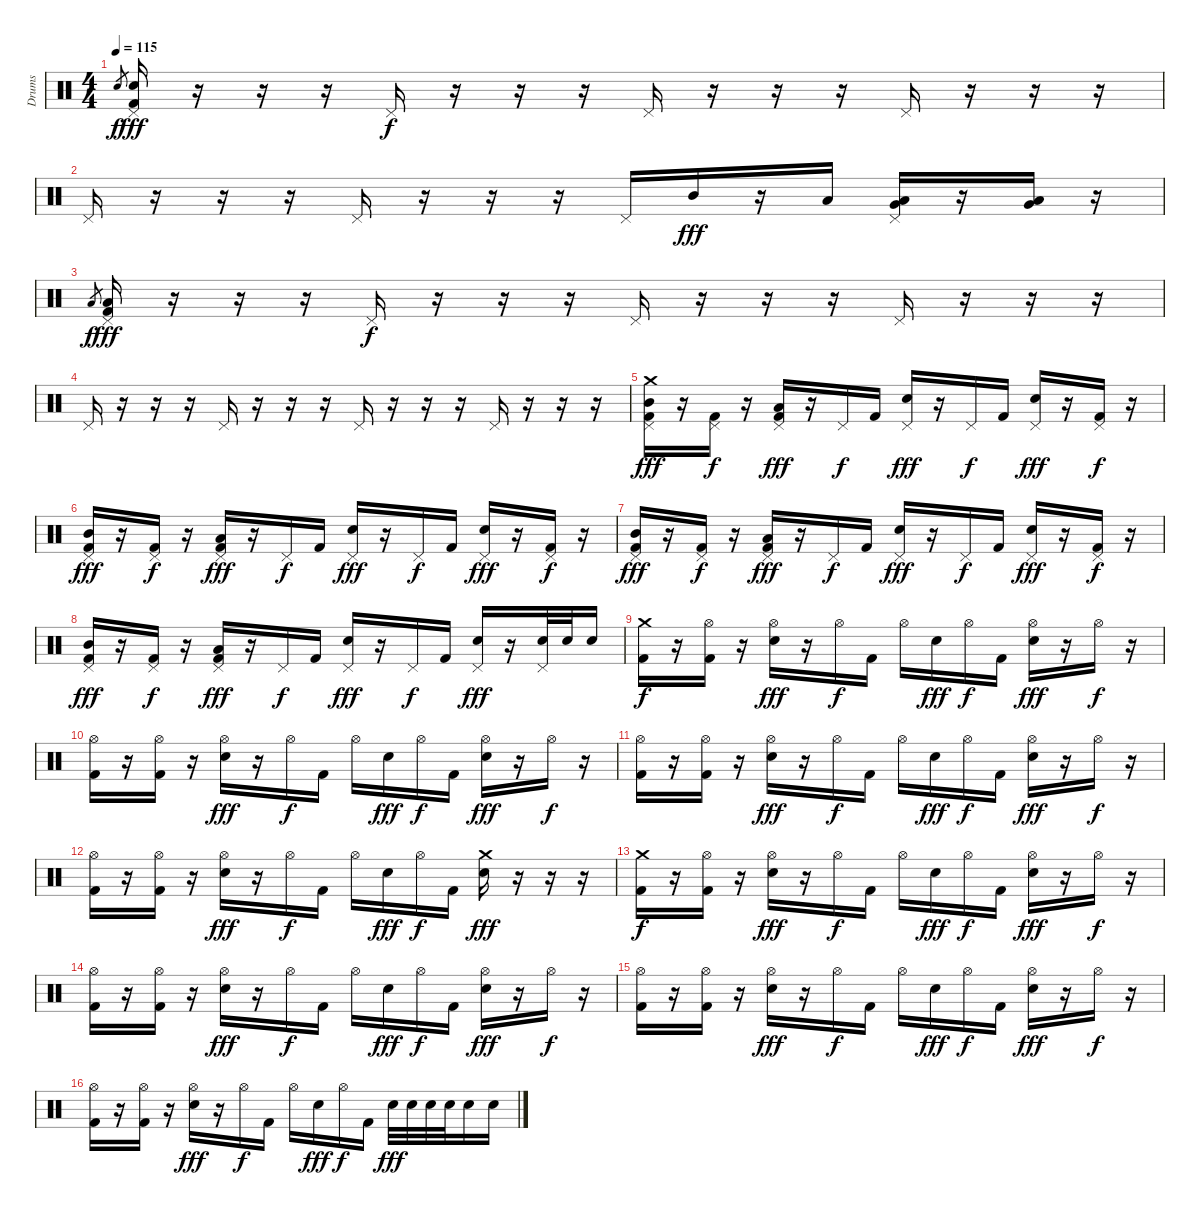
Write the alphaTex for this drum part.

\track ("Drums" "Drums") {instrument percussion}
\staff {score}
\articulation defaults
\ts (4 4)
\tempo 115
\clef neutral
\ks c "Snare (hit) 2".8{gr dy f}
("Pedal Hi-Hat (hit)" "Snare (hit) 2" "Kick (hit) 2").16{dy fff} r.16 r.16 r.16 "Pedal Hi-Hat (hit)".16{dy f} r.16 r.16 r.16 "Pedal Hi-Hat (hit)".16 r.16 r.16 r.16 "Pedal Hi-Hat (hit)".16 r.16 r.16 r.16 |
"Pedal Hi-Hat (hit)".16 r.16 r.16 r.16 "Pedal Hi-Hat (hit)".16 r.16 r.16 r.16 "Pedal Hi-Hat (hit)".16 "Mid Tom (hit)".16{dy fff} r.16 "Low Tom (hit)".16 ("Pedal Hi-Hat (hit)" "Low Tom (hit)" "Very Low Tom (hit)").16 r.16 ("Low Floor Tom (hit)" "Very Low Tom (hit)").16 r.16 |
"Low Floor Tom (hit)".8{gr dy f} ("Pedal Hi-Hat (hit)" "Low Floor Tom (hit)" "Kick (hit) 2").16{dy fff} r.16 r.16 r.16 "Pedal Hi-Hat (hit)".16{dy f} r.16 r.16 r.16 "Pedal Hi-Hat (hit)".16 r.16 r.16 r.16 "Pedal Hi-Hat (hit)".16 r.16 r.16 r.16 |
"Pedal Hi-Hat (hit)".16 r.16 r.16 r.16 "Pedal Hi-Hat (hit)".16 r.16 r.16 r.16 "Pedal Hi-Hat (hit)".16 r.16 r.16 r.16 "Pedal Hi-Hat (hit)".16 r.16 r.16 r.16 |
("Crash medium (hit)" "Pedal Hi-Hat (hit)" "Mid Tom (hit)" "Kick (hit) 2").16{dy fff} r.16 ("Pedal Hi-Hat (hit)" "Kick (hit) 2").16{dy f} r.16 ("Pedal Hi-Hat (hit)" "Low Tom (hit)" "Kick (hit) 2").16{dy fff} r.16 "Pedal Hi-Hat (hit)".16{dy f} "Kick (hit) 2".16 ("Pedal Hi-Hat (hit)" "Snare (hit) 2").16{dy fff} r.16 "Pedal Hi-Hat (hit)".16{dy f} "Kick (hit) 2".16 ("Pedal Hi-Hat (hit)" "Snare (hit) 2").16{dy fff} r.16 ("Pedal Hi-Hat (hit)" "Kick (hit) 2").16{dy f} r.16 |
("Pedal Hi-Hat (hit)" "Mid Tom (hit)" "Kick (hit) 2").16{dy fff} r.16 ("Pedal Hi-Hat (hit)" "Kick (hit) 2").16{dy f} r.16 ("Pedal Hi-Hat (hit)" "Low Tom (hit)" "Kick (hit) 2").16{dy fff} r.16 "Pedal Hi-Hat (hit)".16{dy f} "Kick (hit) 2".16 ("Pedal Hi-Hat (hit)" "Snare (hit) 2").16{dy fff} r.16 "Pedal Hi-Hat (hit)".16{dy f} "Kick (hit) 2".16 ("Pedal Hi-Hat (hit)" "Snare (hit) 2").16{dy fff} r.16 ("Pedal Hi-Hat (hit)" "Kick (hit) 2").16{dy f} r.16 |
("Pedal Hi-Hat (hit)" "Mid Tom (hit)" "Kick (hit) 2").16{dy fff} r.16 ("Pedal Hi-Hat (hit)" "Kick (hit) 2").16{dy f} r.16 ("Pedal Hi-Hat (hit)" "Low Tom (hit)" "Kick (hit) 2").16{dy fff} r.16 "Pedal Hi-Hat (hit)".16{dy f} "Kick (hit) 2".16 ("Pedal Hi-Hat (hit)" "Snare (hit) 2").16{dy fff} r.16 "Pedal Hi-Hat (hit)".16{dy f} "Kick (hit) 2".16 ("Pedal Hi-Hat (hit)" "Snare (hit) 2").16{dy fff} r.16 ("Pedal Hi-Hat (hit)" "Kick (hit) 2").16{dy f} r.16 |
("Pedal Hi-Hat (hit)" "Mid Tom (hit)" "Kick (hit) 2").16{dy fff} r.16 ("Pedal Hi-Hat (hit)" "Kick (hit) 2").16{dy f} r.16 ("Pedal Hi-Hat (hit)" "Low Tom (hit)" "Kick (hit) 2").16{dy fff} r.16 "Pedal Hi-Hat (hit)".16{dy f} "Kick (hit) 2".16 ("Pedal Hi-Hat (hit)" "Snare (hit) 2").16{dy fff} r.16 "Pedal Hi-Hat (hit)".16{dy f} "Kick (hit) 2".16 ("Pedal Hi-Hat (hit)" "Snare (hit) 2").16{dy fff} r.16 ("Pedal Hi-Hat (hit)" "Snare (hit) 2").32 "Snare (hit) 2".32 "Snare (hit) 2".16 |
("Crash medium (hit)" "Kick (hit) 2").16{dy f} r.16 ("Hi-Hat (open)" "Kick (hit) 2").16 r.16 ("Hi-Hat (open)" "Snare (hit) 2").16{dy fff} r.16 "Hi-Hat (open)".16{dy f} "Kick (hit) 2".16 "Hi-Hat (open)".16 "Snare (hit) 2".16{dy fff} "Hi-Hat (open)".16{dy f} "Kick (hit) 2".16 ("Hi-Hat (open)" "Snare (hit) 2").16{dy fff} r.16 "Hi-Hat (open)".16{dy f} r.16 |
("Hi-Hat (open)" "Kick (hit) 2").16 r.16 ("Hi-Hat (open)" "Kick (hit) 2").16 r.16 ("Hi-Hat (open)" "Snare (hit) 2").16{dy fff} r.16 "Hi-Hat (open)".16{dy f} "Kick (hit) 2".16 "Hi-Hat (open)".16 "Snare (hit) 2".16{dy fff} "Hi-Hat (open)".16{dy f} "Kick (hit) 2".16 ("Hi-Hat (open)" "Snare (hit) 2").16{dy fff} r.16 "Hi-Hat (open)".16{dy f} r.16 |
("Hi-Hat (open)" "Kick (hit) 2").16 r.16 ("Hi-Hat (open)" "Kick (hit) 2").16 r.16 ("Hi-Hat (open)" "Snare (hit) 2").16{dy fff} r.16 "Hi-Hat (open)".16{dy f} "Kick (hit) 2".16 "Hi-Hat (open)".16 "Snare (hit) 2".16{dy fff} "Hi-Hat (open)".16{dy f} "Kick (hit) 2".16 ("Hi-Hat (open)" "Snare (hit) 2").16{dy fff} r.16 "Hi-Hat (open)".16{dy f} r.16 |
("Hi-Hat (open)" "Kick (hit) 2").16 r.16 ("Hi-Hat (open)" "Kick (hit) 2").16 r.16 ("Hi-Hat (open)" "Snare (hit) 2").16{dy fff} r.16 "Hi-Hat (open)".16{dy f} "Kick (hit) 2".16 "Hi-Hat (open)".16 "Snare (hit) 2".16{dy fff} "Hi-Hat (open)".16{dy f} "Kick (hit) 2".16 ("Crash medium (hit)" "Snare (hit) 2").16{dy fff} r.16 r.16 r.16 |
("Crash medium (hit)" "Kick (hit) 2").16{dy f} r.16 ("Hi-Hat (open)" "Kick (hit) 2").16 r.16 ("Hi-Hat (open)" "Snare (hit) 2").16{dy fff} r.16 "Hi-Hat (open)".16{dy f} "Kick (hit) 2".16 "Hi-Hat (open)".16 "Snare (hit) 2".16{dy fff} "Hi-Hat (open)".16{dy f} "Kick (hit) 2".16 ("Hi-Hat (open)" "Snare (hit) 2").16{dy fff} r.16 "Hi-Hat (open)".16{dy f} r.16 |
("Hi-Hat (open)" "Kick (hit) 2").16 r.16 ("Hi-Hat (open)" "Kick (hit) 2").16 r.16 ("Hi-Hat (open)" "Snare (hit) 2").16{dy fff} r.16 "Hi-Hat (open)".16{dy f} "Kick (hit) 2".16 "Hi-Hat (open)".16 "Snare (hit) 2".16{dy fff} "Hi-Hat (open)".16{dy f} "Kick (hit) 2".16 ("Hi-Hat (open)" "Snare (hit) 2").16{dy fff} r.16 "Hi-Hat (open)".16{dy f} r.16 |
("Hi-Hat (open)" "Kick (hit) 2").16 r.16 ("Hi-Hat (open)" "Kick (hit) 2").16 r.16 ("Hi-Hat (open)" "Snare (hit) 2").16{dy fff} r.16 "Hi-Hat (open)".16{dy f} "Kick (hit) 2".16 "Hi-Hat (open)".16 "Snare (hit) 2".16{dy fff} "Hi-Hat (open)".16{dy f} "Kick (hit) 2".16 ("Hi-Hat (open)" "Snare (hit) 2").16{dy fff} r.16 "Hi-Hat (open)".16{dy f} r.16 |
("Hi-Hat (open)" "Kick (hit) 2").16 r.16 ("Hi-Hat (open)" "Kick (hit) 2").16 r.16 ("Hi-Hat (open)" "Snare (hit) 2").16{dy fff} r.16 "Hi-Hat (open)".16{dy f} "Kick (hit) 2".16 "Hi-Hat (open)".16 "Snare (hit) 2".16{dy fff} "Hi-Hat (open)".16{dy f} "Kick (hit) 2".16 "Snare (hit) 2".32{dy fff} "Snare (hit) 2".32 "Snare (hit) 2".32 "Snare (hit) 2".32 "Snare (hit) 2".16 "Snare (hit) 2".16
